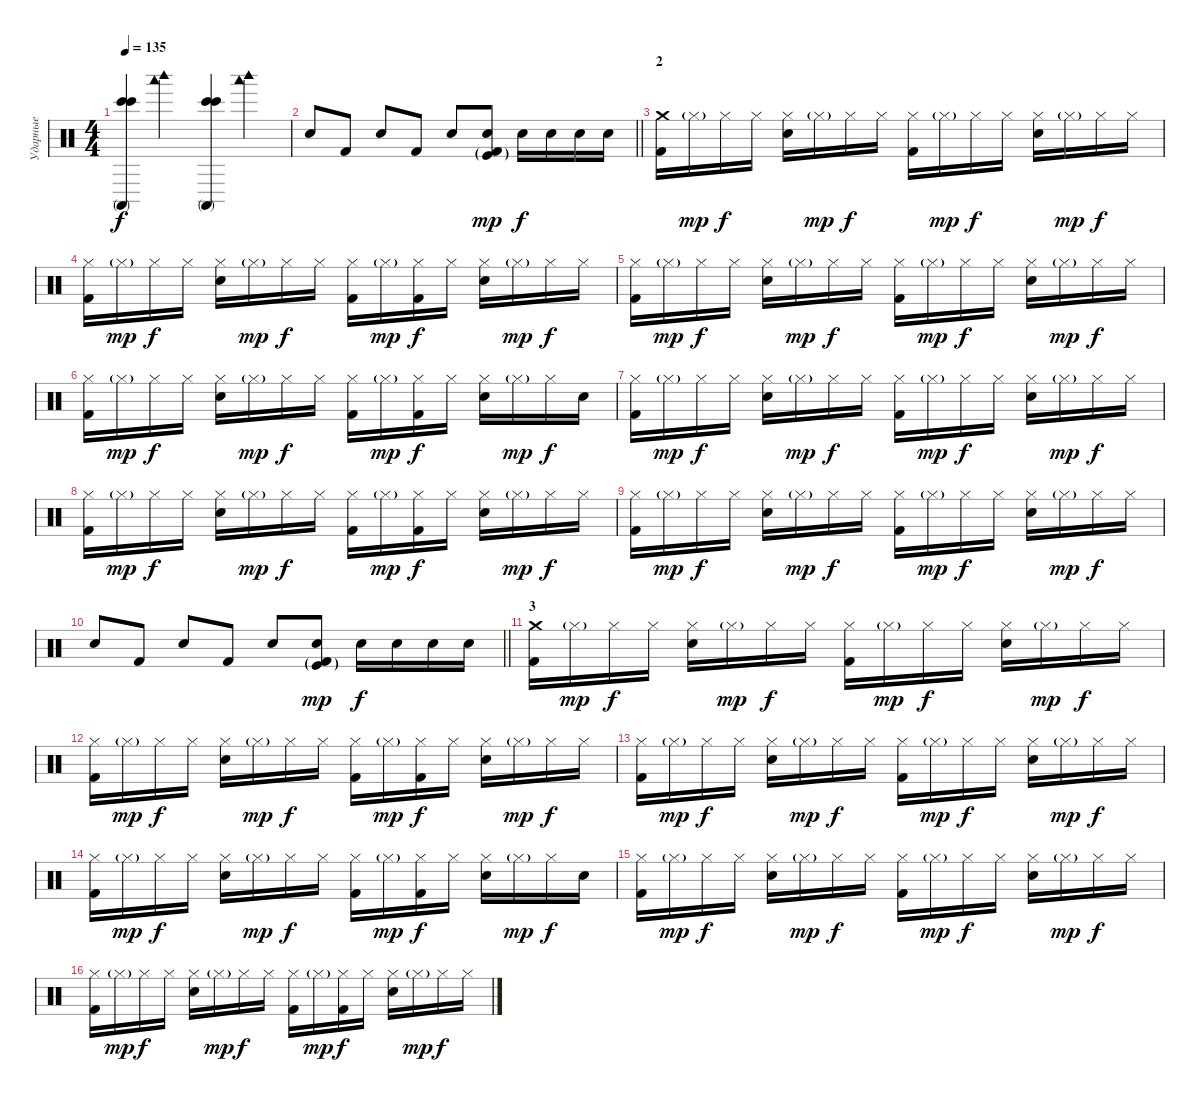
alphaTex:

\track ("Ударные" "Ударные") {instrument percussion}
\staff {score}
\articulation defaults
\ts (4 4)
\tempo 135
\clef neutral
\ks c
("Bongo High (hit)" "Bongo High (hit)" "Conga high (mute)").4{dy f} ("Woodblock low (hit)" "Woodblock high (hit)").4 ("Bongo High (hit)" "Bongo High (hit)" "Conga high (mute)").4 ("Woodblock low (hit)" "Woodblock high (hit)").4 |
\barLineRight lightlight "Snare (hit) 2".8 "Kick (hit) 2".8 "Snare (hit) 2".8 "Kick (hit) 2".8 "Snare (hit) 2".8
("Kick (hit)"{g} "Snare (hit) 2" "Kick (hit) 2"{g}).8{dy mp} "Snare (hit) 2".16{dy f} "Snare (hit) 2".16 "Snare (hit) 2".16 "Snare (hit) 2".16 |
\section ("" "2")
("Crash medium (hit)" "Kick (hit) 2").16 "Hi-Hat (closed)"{g}.16{dy mp} "Hi-Hat (closed)".16{dy f} "Hi-Hat (closed)".16 ("Hi-Hat (closed)" "Snare (hit) 2").16 "Hi-Hat (closed)"{g}.16{dy mp} "Hi-Hat (closed)".16{dy f} "Hi-Hat (closed)".16 ("Hi-Hat (closed)" "Kick (hit) 2").16 "Hi-Hat (closed)"{g}.16{dy mp} "Hi-Hat (closed)".16{dy f} "Hi-Hat (closed)".16 ("Hi-Hat (closed)" "Snare (hit) 2").16 "Hi-Hat (closed)"{g}.16{dy mp} "Hi-Hat (closed)".16{dy f} "Hi-Hat (closed)".16 |
("Hi-Hat (closed)" "Kick (hit) 2").16 "Hi-Hat (closed)"{g}.16{dy mp} "Hi-Hat (closed)".16{dy f} "Hi-Hat (closed)".16 ("Hi-Hat (closed)" "Snare (hit) 2").16 "Hi-Hat (closed)"{g}.16{dy mp} "Hi-Hat (closed)".16{dy f} "Hi-Hat (closed)".16 ("Hi-Hat (closed)" "Kick (hit) 2").16 "Hi-Hat (closed)"{g}.16{dy mp} ("Hi-Hat (closed)" "Kick (hit) 2").16{dy f} "Hi-Hat (closed)".16 ("Hi-Hat (closed)" "Snare (hit) 2").16 "Hi-Hat (closed)"{g}.16{dy mp} "Hi-Hat (closed)".16{dy f} "Hi-Hat (closed)".16 |
("Hi-Hat (closed)" "Kick (hit) 2").16 "Hi-Hat (closed)"{g}.16{dy mp} "Hi-Hat (closed)".16{dy f} "Hi-Hat (closed)".16 ("Hi-Hat (closed)" "Snare (hit) 2").16 "Hi-Hat (closed)"{g}.16{dy mp} "Hi-Hat (closed)".16{dy f} "Hi-Hat (closed)".16 ("Hi-Hat (closed)" "Kick (hit) 2").16 "Hi-Hat (closed)"{g}.16{dy mp} "Hi-Hat (closed)".16{dy f} "Hi-Hat (closed)".16 ("Hi-Hat (closed)" "Snare (hit) 2").16 "Hi-Hat (closed)"{g}.16{dy mp} "Hi-Hat (closed)".16{dy f} "Hi-Hat (closed)".16 |
("Hi-Hat (closed)" "Kick (hit) 2").16 "Hi-Hat (closed)"{g}.16{dy mp} "Hi-Hat (closed)".16{dy f} "Hi-Hat (closed)".16 ("Hi-Hat (closed)" "Snare (hit) 2").16 "Hi-Hat (closed)"{g}.16{dy mp} "Hi-Hat (closed)".16{dy f} "Hi-Hat (closed)".16 ("Hi-Hat (closed)" "Kick (hit) 2").16 "Hi-Hat (closed)"{g}.16{dy mp} ("Hi-Hat (closed)" "Kick (hit) 2").16{dy f} "Hi-Hat (closed)".16 ("Hi-Hat (closed)" "Snare (hit) 2").16 "Hi-Hat (closed)"{g}.16{dy mp} "Hi-Hat (closed)".16{dy f} "Snare (hit) 2".16 |
("Hi-Hat (closed)" "Kick (hit) 2").16 "Hi-Hat (closed)"{g}.16{dy mp} "Hi-Hat (closed)".16{dy f} "Hi-Hat (closed)".16 ("Hi-Hat (closed)" "Snare (hit) 2").16 "Hi-Hat (closed)"{g}.16{dy mp} "Hi-Hat (closed)".16{dy f} "Hi-Hat (closed)".16 ("Hi-Hat (closed)" "Kick (hit) 2").16 "Hi-Hat (closed)"{g}.16{dy mp} "Hi-Hat (closed)".16{dy f} "Hi-Hat (closed)".16 ("Hi-Hat (closed)" "Snare (hit) 2").16 "Hi-Hat (closed)"{g}.16{dy mp} "Hi-Hat (closed)".16{dy f} "Hi-Hat (closed)".16 |
("Hi-Hat (closed)" "Kick (hit) 2").16 "Hi-Hat (closed)"{g}.16{dy mp} "Hi-Hat (closed)".16{dy f} "Hi-Hat (closed)".16 ("Hi-Hat (closed)" "Snare (hit) 2").16 "Hi-Hat (closed)"{g}.16{dy mp} "Hi-Hat (closed)".16{dy f} "Hi-Hat (closed)".16 ("Hi-Hat (closed)" "Kick (hit) 2").16 "Hi-Hat (closed)"{g}.16{dy mp} ("Hi-Hat (closed)" "Kick (hit) 2").16{dy f} "Hi-Hat (closed)".16 ("Hi-Hat (closed)" "Snare (hit) 2").16 "Hi-Hat (closed)"{g}.16{dy mp} "Hi-Hat (closed)".16{dy f} "Hi-Hat (closed)".16 |
("Hi-Hat (closed)" "Kick (hit) 2").16 "Hi-Hat (closed)"{g}.16{dy mp} "Hi-Hat (closed)".16{dy f} "Hi-Hat (closed)".16 ("Hi-Hat (closed)" "Snare (hit) 2").16 "Hi-Hat (closed)"{g}.16{dy mp} "Hi-Hat (closed)".16{dy f} "Hi-Hat (closed)".16 ("Hi-Hat (closed)" "Kick (hit) 2").16 "Hi-Hat (closed)"{g}.16{dy mp} "Hi-Hat (closed)".16{dy f} "Hi-Hat (closed)".16 ("Hi-Hat (closed)" "Snare (hit) 2").16 "Hi-Hat (closed)"{g}.16{dy mp} "Hi-Hat (closed)".16{dy f} "Hi-Hat (closed)".16 |
\barLineRight lightlight "Snare (hit) 2".8 "Kick (hit) 2".8 "Snare (hit) 2".8 "Kick (hit) 2".8 "Snare (hit) 2".8
("Kick (hit)"{g} "Snare (hit) 2" "Kick (hit) 2"{g}).8{dy mp} "Snare (hit) 2".16{dy f} "Snare (hit) 2".16 "Snare (hit) 2".16 "Snare (hit) 2".16 |
\section ("" "3")
("Crash medium (hit)" "Kick (hit) 2").16 "Hi-Hat (closed)"{g}.16{dy mp} "Hi-Hat (closed)".16{dy f} "Hi-Hat (closed)".16 ("Hi-Hat (closed)" "Snare (hit) 2").16 "Hi-Hat (closed)"{g}.16{dy mp} "Hi-Hat (closed)".16{dy f} "Hi-Hat (closed)".16 ("Hi-Hat (closed)" "Kick (hit) 2").16 "Hi-Hat (closed)"{g}.16{dy mp} "Hi-Hat (closed)".16{dy f} "Hi-Hat (closed)".16 ("Hi-Hat (closed)" "Snare (hit) 2").16 "Hi-Hat (closed)"{g}.16{dy mp} "Hi-Hat (closed)".16{dy f} "Hi-Hat (closed)".16 |
("Hi-Hat (closed)" "Kick (hit) 2").16 "Hi-Hat (closed)"{g}.16{dy mp} "Hi-Hat (closed)".16{dy f} "Hi-Hat (closed)".16 ("Hi-Hat (closed)" "Snare (hit) 2").16 "Hi-Hat (closed)"{g}.16{dy mp} "Hi-Hat (closed)".16{dy f} "Hi-Hat (closed)".16 ("Hi-Hat (closed)" "Kick (hit) 2").16 "Hi-Hat (closed)"{g}.16{dy mp} ("Hi-Hat (closed)" "Kick (hit) 2").16{dy f} "Hi-Hat (closed)".16 ("Hi-Hat (closed)" "Snare (hit) 2").16 "Hi-Hat (closed)"{g}.16{dy mp} "Hi-Hat (closed)".16{dy f} "Hi-Hat (closed)".16 |
("Hi-Hat (closed)" "Kick (hit) 2").16 "Hi-Hat (closed)"{g}.16{dy mp} "Hi-Hat (closed)".16{dy f} "Hi-Hat (closed)".16 ("Hi-Hat (closed)" "Snare (hit) 2").16 "Hi-Hat (closed)"{g}.16{dy mp} "Hi-Hat (closed)".16{dy f} "Hi-Hat (closed)".16 ("Hi-Hat (closed)" "Kick (hit) 2").16 "Hi-Hat (closed)"{g}.16{dy mp} "Hi-Hat (closed)".16{dy f} "Hi-Hat (closed)".16 ("Hi-Hat (closed)" "Snare (hit) 2").16 "Hi-Hat (closed)"{g}.16{dy mp} "Hi-Hat (closed)".16{dy f} "Hi-Hat (closed)".16 |
("Hi-Hat (closed)" "Kick (hit) 2").16 "Hi-Hat (closed)"{g}.16{dy mp} "Hi-Hat (closed)".16{dy f} "Hi-Hat (closed)".16 ("Hi-Hat (closed)" "Snare (hit) 2").16 "Hi-Hat (closed)"{g}.16{dy mp} "Hi-Hat (closed)".16{dy f} "Hi-Hat (closed)".16 ("Hi-Hat (closed)" "Kick (hit) 2").16 "Hi-Hat (closed)"{g}.16{dy mp} ("Hi-Hat (closed)" "Kick (hit) 2").16{dy f} "Hi-Hat (closed)".16 ("Hi-Hat (closed)" "Snare (hit) 2").16 "Hi-Hat (closed)"{g}.16{dy mp} "Hi-Hat (closed)".16{dy f} "Snare (hit) 2".16 |
("Hi-Hat (closed)" "Kick (hit) 2").16 "Hi-Hat (closed)"{g}.16{dy mp} "Hi-Hat (closed)".16{dy f} "Hi-Hat (closed)".16 ("Hi-Hat (closed)" "Snare (hit) 2").16 "Hi-Hat (closed)"{g}.16{dy mp} "Hi-Hat (closed)".16{dy f} "Hi-Hat (closed)".16 ("Hi-Hat (closed)" "Kick (hit) 2").16 "Hi-Hat (closed)"{g}.16{dy mp} "Hi-Hat (closed)".16{dy f} "Hi-Hat (closed)".16 ("Hi-Hat (closed)" "Snare (hit) 2").16 "Hi-Hat (closed)"{g}.16{dy mp} "Hi-Hat (closed)".16{dy f} "Hi-Hat (closed)".16 |
("Hi-Hat (closed)" "Kick (hit) 2").16 "Hi-Hat (closed)"{g}.16{dy mp} "Hi-Hat (closed)".16{dy f} "Hi-Hat (closed)".16 ("Hi-Hat (closed)" "Snare (hit) 2").16 "Hi-Hat (closed)"{g}.16{dy mp} "Hi-Hat (closed)".16{dy f} "Hi-Hat (closed)".16 ("Hi-Hat (closed)" "Kick (hit) 2").16 "Hi-Hat (closed)"{g}.16{dy mp} ("Hi-Hat (closed)" "Kick (hit) 2").16{dy f} "Hi-Hat (closed)".16 ("Hi-Hat (closed)" "Snare (hit) 2").16 "Hi-Hat (closed)"{g}.16{dy mp} "Hi-Hat (closed)".16{dy f} "Hi-Hat (closed)".16
